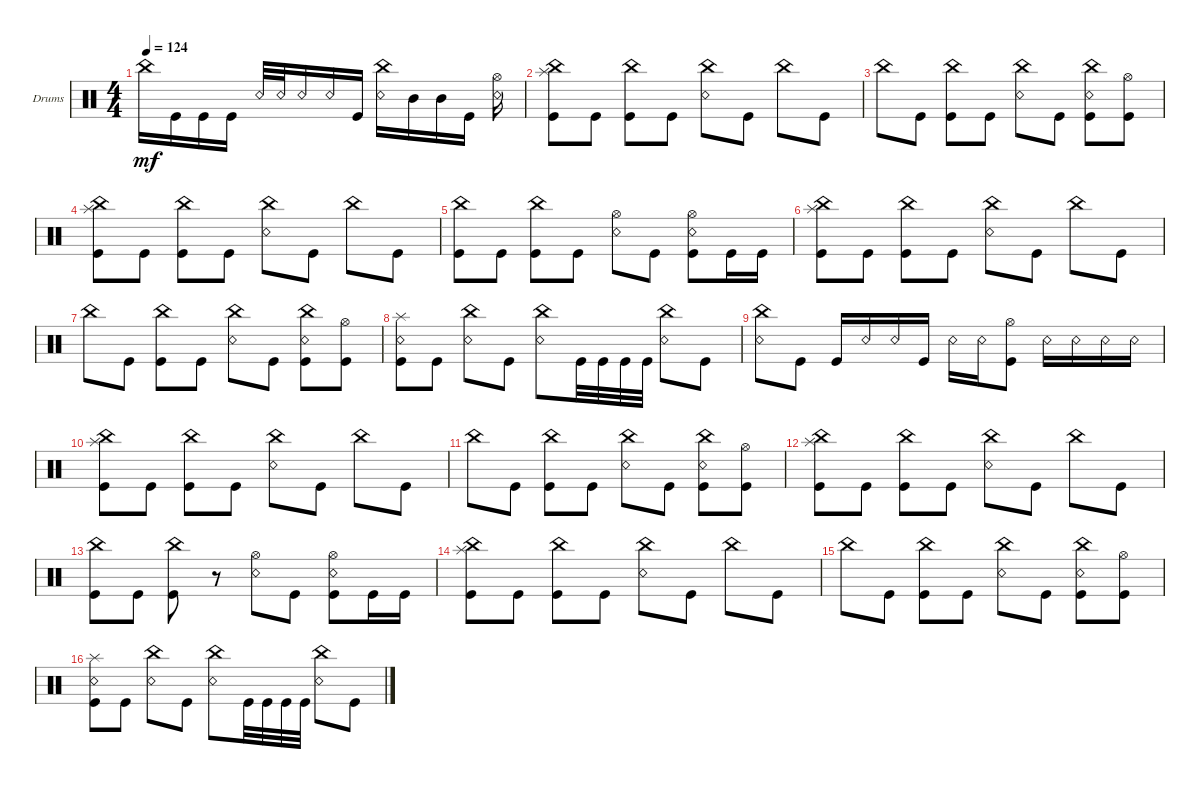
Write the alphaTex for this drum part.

\defaultSystemsLayout 4
\bracketExtendMode groupsimilarinstruments
\firstSystemTrackNameOrientation horizontal
\otherSystemsTrackNameOrientation horizontal
\track ("Drums" "Drums") {instrument percussion}
\staff {score}
\articulation defaults
\ts (4 4)
\tempo 124
\clef neutral
\ks c "China (hit)".16{dy mf} "Kick (hit)".16 "Kick (hit)".16 "Kick (hit)".16 "Snare (rim shot)".32 "Snare (rim shot)".32 "Snare (rim shot)".16 "Snare (rim shot)".16 "Kick (hit)".16
("China (hit)" "Snare (rim shot)").16 "Mid Tom (hit)".16 "Mid Tom (hit)".16 "Kick (hit)".16 ("Snare (rim shot)" "Hi-Hat (open)").16 |
("Kick (hit)" "China (hit)" "Splash (hit)").8 "Kick (hit)".8 ("Kick (hit)" "China (hit)").8 "Kick (hit)".8 ("Snare (rim shot)" "China (hit)").8 "Kick (hit)".8 "China (hit)".8 "Kick (hit)".8 |
"China (hit)".8 "Kick (hit)".8 ("Kick (hit)" "China (hit)").8 "Kick (hit)".8 ("Snare (rim shot)" "China (hit)").8 "Kick (hit)".8 ("Kick (hit)" "China (hit)" "Snare (rim shot)").8 ("Kick (hit)" "Hi-Hat (open)").8 |
("Kick (hit)" "China (hit)" "Splash (hit)").8 "Kick (hit)".8 ("Kick (hit)" "China (hit)").8 "Kick (hit)".8 ("Snare (rim shot)" "China (hit)").8 "Kick (hit)".8 "China (hit)".8 "Kick (hit)".8 |
("Kick (hit)" "China (hit)").8 "Kick (hit)".8 ("Kick (hit)" "China (hit)").8 "Kick (hit)".8 ("Snare (rim shot)" "Hi-Hat (open)").8 "Kick (hit)".8 ("Kick (hit)" "Snare (rim shot)" "Hi-Hat (open)").8 "Kick (hit)".16 "Kick (hit)".16 |
("Kick (hit)" "China (hit)" "Splash (hit)").8 "Kick (hit)".8 ("Kick (hit)" "China (hit)").8 "Kick (hit)".8 ("Snare (rim shot)" "China (hit)").8 "Kick (hit)".8 "China (hit)".8 "Kick (hit)".8 |
"China (hit)".8 "Kick (hit)".8 ("Kick (hit)" "China (hit)").8 "Kick (hit)".8 ("Snare (rim shot)" "China (hit)").8 "Kick (hit)".8 ("Kick (hit)" "China (hit)" "Snare (rim shot)").8 ("Kick (hit)" "Hi-Hat (open)").8 |
("Snare (rim shot)" "Kick (hit)" "Splash (hit)").8 "Kick (hit)".8 ("Snare (rim shot)" "China (hit)").8 "Kick (hit)".8 ("Snare (rim shot)" "China (hit)").8 "Kick (hit)".32 "Kick (hit)".32 "Kick (hit)".32 "Kick (hit)".32 ("Snare (rim shot)" "China (hit)").8 "Kick (hit)".8 |
("Snare (rim shot)" "China (hit)").8 "Kick (hit)".8 "Kick (hit)".16 "Snare (rim shot)".16 "Snare (rim shot)".16 "Kick (hit)".16 "Snare (rim shot)".16 "Snare (rim shot)".16 ("Kick (hit)" "Hi-Hat (open)").8 "Snare (rim shot)".16 "Snare (rim shot)".16 "Snare (rim shot)".16 "Snare (rim shot)".16 |
("Kick (hit)" "China (hit)" "Splash (hit)").8 "Kick (hit)".8 ("Kick (hit)" "China (hit)").8 "Kick (hit)".8 ("Snare (rim shot)" "China (hit)").8 "Kick (hit)".8 "China (hit)".8 "Kick (hit)".8 |
"China (hit)".8 "Kick (hit)".8 ("Kick (hit)" "China (hit)").8 "Kick (hit)".8 ("Snare (rim shot)" "China (hit)").8 "Kick (hit)".8 ("Kick (hit)" "China (hit)" "Snare (rim shot)").8 ("Kick (hit)" "Hi-Hat (open)").8 |
("Kick (hit)" "China (hit)" "Splash (hit)").8 "Kick (hit)".8 ("Kick (hit)" "China (hit)").8 "Kick (hit)".8 ("Snare (rim shot)" "China (hit)").8 "Kick (hit)".8 "China (hit)".8 "Kick (hit)".8 |
("Kick (hit)" "China (hit)").8 "Kick (hit)".8 ("Kick (hit)" "China (hit)").8 r.8 ("Snare (rim shot)" "Hi-Hat (open)").8 "Kick (hit)".8 ("Kick (hit)" "Snare (rim shot)" "Hi-Hat (open)").8 "Kick (hit)".16 "Kick (hit)".16 |
("Kick (hit)" "China (hit)" "Splash (hit)").8 "Kick (hit)".8 ("Kick (hit)" "China (hit)").8 "Kick (hit)".8 ("Snare (rim shot)" "China (hit)").8 "Kick (hit)".8 "China (hit)".8 "Kick (hit)".8 |
"China (hit)".8 "Kick (hit)".8 ("Kick (hit)" "China (hit)").8 "Kick (hit)".8 ("Snare (rim shot)" "China (hit)").8 "Kick (hit)".8 ("Kick (hit)" "China (hit)" "Snare (rim shot)").8 ("Kick (hit)" "Hi-Hat (open)").8 |
("Snare (rim shot)" "Kick (hit)" "Splash (hit)").8 "Kick (hit)".8 ("Snare (rim shot)" "China (hit)").8 "Kick (hit)".8 ("Snare (rim shot)" "China (hit)").8 "Kick (hit)".32 "Kick (hit)".32 "Kick (hit)".32 "Kick (hit)".32 ("Snare (rim shot)" "China (hit)").8 "Kick (hit)".8
